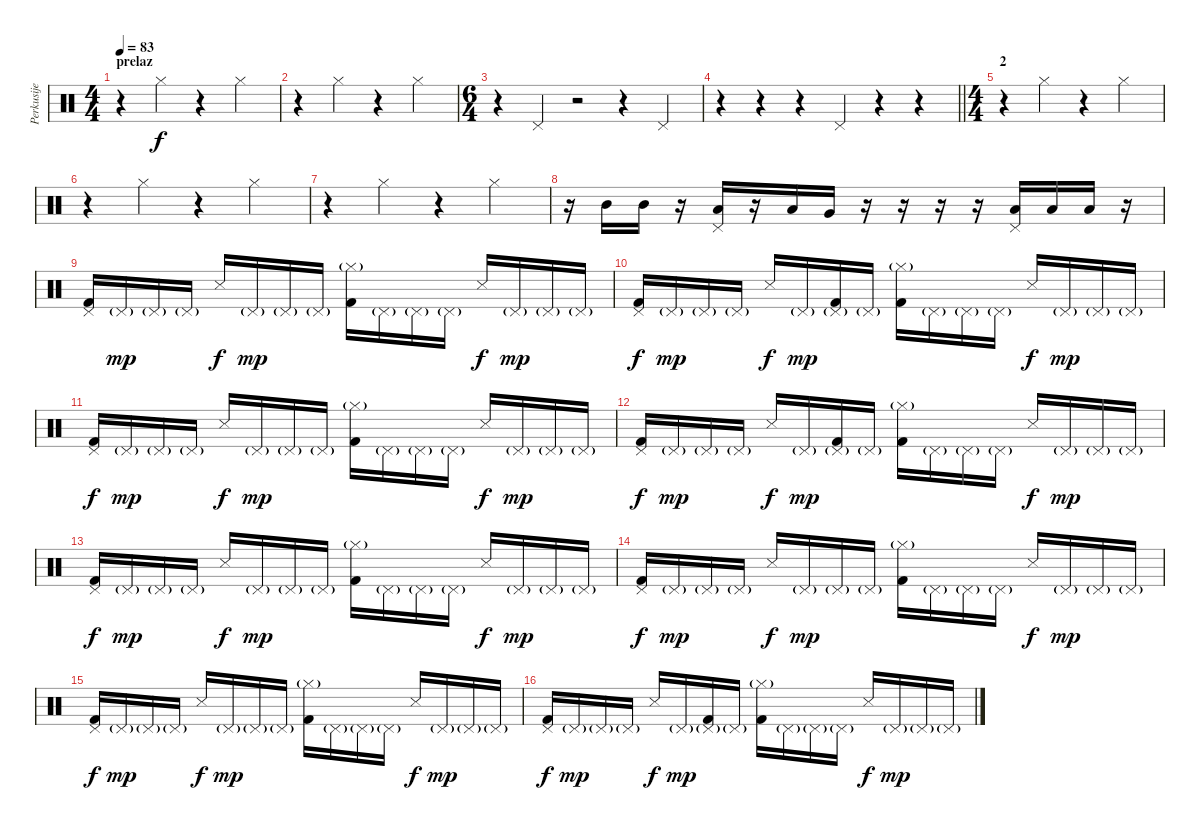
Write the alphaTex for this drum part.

\track ("Perkusije" "Perkusije") {instrument percussion}
\staff {score}
\articulation defaults
\ts (4 4)
\section ("" "prelaz")
\tempo 83
\clef neutral
\ks c
r.4{dy f} "Hi-Hat (closed)".4 r.4 "Hi-Hat (closed)".4 |
r.4 "Hi-Hat (closed)".4 r.4 "Hi-Hat (closed)".4 |
\ts (6 4)
r.4 "Pedal Hi-Hat (hit)".4 r.2 r.4 "Pedal Hi-Hat (hit)".4 |
\barLineRight lightlight
r.4 r.4 r.4 "Pedal Hi-Hat (hit)".4 r.4 r.4 |
\ts (4 4)
\section ("" "2")
r.4 "Hi-Hat (closed)".4 r.4 "Hi-Hat (closed)".4 |
r.4 "Hi-Hat (closed)".4 r.4 "Hi-Hat (closed)".4 |
r.4 "Hi-Hat (closed)".4 r.4 "Hi-Hat (closed)".4 |
r.16 "Mid Tom (hit)".16 "Mid Tom (hit)".16 r.16 ("Pedal Hi-Hat (hit)" "Low Tom (hit)").16 r.16 "Low Tom (hit)".16 "Very Low Tom (hit)".16 r.16 r.16 r.16 r.16 ("Pedal Hi-Hat (hit)" "Low Floor Tom (hit)").16 "Low Floor Tom (hit)".16 "Low Floor Tom (hit)".16 r.16 |
("Pedal Hi-Hat (hit)" "Kick (hit) 2").16 "Pedal Hi-Hat (hit)"{g}.16{dy mp} "Pedal Hi-Hat (hit)"{g}.16 "Pedal Hi-Hat (hit)"{g}.16 "Snare (side stick) 3".16{dy f} "Pedal Hi-Hat (hit)"{g}.16{dy mp} "Pedal Hi-Hat (hit)"{g}.16 "Pedal Hi-Hat (hit)"{g}.16 ("Hi-Hat (closed)"{g} "Kick (hit) 2").16 "Pedal Hi-Hat (hit)"{g}.16 "Pedal Hi-Hat (hit)"{g}.16 "Pedal Hi-Hat (hit)"{g}.16 "Snare (side stick) 3".16{dy f} "Pedal Hi-Hat (hit)"{g}.16{dy mp} "Pedal Hi-Hat (hit)"{g}.16 "Pedal Hi-Hat (hit)"{g}.16 |
("Pedal Hi-Hat (hit)" "Kick (hit) 2").16{dy f} "Pedal Hi-Hat (hit)"{g}.16{dy mp} "Pedal Hi-Hat (hit)"{g}.16 "Pedal Hi-Hat (hit)"{g}.16 "Snare (side stick) 3".16{dy f} "Pedal Hi-Hat (hit)"{g}.16{dy mp} ("Pedal Hi-Hat (hit)"{g} "Kick (hit) 2").16 "Pedal Hi-Hat (hit)"{g}.16 ("Hi-Hat (closed)"{g} "Kick (hit) 2").16 "Pedal Hi-Hat (hit)"{g}.16 "Pedal Hi-Hat (hit)"{g}.16 "Pedal Hi-Hat (hit)"{g}.16 "Snare (side stick) 3".16{dy f} "Pedal Hi-Hat (hit)"{g}.16{dy mp} "Pedal Hi-Hat (hit)"{g}.16 "Pedal Hi-Hat (hit)"{g}.16 |
("Pedal Hi-Hat (hit)" "Kick (hit) 2").16{dy f} "Pedal Hi-Hat (hit)"{g}.16{dy mp} "Pedal Hi-Hat (hit)"{g}.16 "Pedal Hi-Hat (hit)"{g}.16 "Snare (side stick) 3".16{dy f} "Pedal Hi-Hat (hit)"{g}.16{dy mp} "Pedal Hi-Hat (hit)"{g}.16 "Pedal Hi-Hat (hit)"{g}.16 ("Hi-Hat (closed)"{g} "Kick (hit) 2").16 "Pedal Hi-Hat (hit)"{g}.16 "Pedal Hi-Hat (hit)"{g}.16 "Pedal Hi-Hat (hit)"{g}.16 "Snare (side stick) 3".16{dy f} "Pedal Hi-Hat (hit)"{g}.16{dy mp} "Pedal Hi-Hat (hit)"{g}.16 "Pedal Hi-Hat (hit)"{g}.16 |
("Pedal Hi-Hat (hit)" "Kick (hit) 2").16{dy f} "Pedal Hi-Hat (hit)"{g}.16{dy mp} "Pedal Hi-Hat (hit)"{g}.16 "Pedal Hi-Hat (hit)"{g}.16 "Snare (side stick) 3".16{dy f} "Pedal Hi-Hat (hit)"{g}.16{dy mp} ("Pedal Hi-Hat (hit)"{g} "Kick (hit) 2").16 "Pedal Hi-Hat (hit)"{g}.16 ("Hi-Hat (closed)"{g} "Kick (hit) 2").16 "Pedal Hi-Hat (hit)"{g}.16 "Pedal Hi-Hat (hit)"{g}.16 "Pedal Hi-Hat (hit)"{g}.16 "Snare (side stick) 3".16{dy f} "Pedal Hi-Hat (hit)"{g}.16{dy mp} "Pedal Hi-Hat (hit)"{g}.16 "Pedal Hi-Hat (hit)"{g}.16 |
("Pedal Hi-Hat (hit)" "Kick (hit) 2").16{dy f} "Pedal Hi-Hat (hit)"{g}.16{dy mp} "Pedal Hi-Hat (hit)"{g}.16 "Pedal Hi-Hat (hit)"{g}.16 "Snare (side stick) 3".16{dy f} "Pedal Hi-Hat (hit)"{g}.16{dy mp} "Pedal Hi-Hat (hit)"{g}.16 "Pedal Hi-Hat (hit)"{g}.16 ("Hi-Hat (closed)"{g} "Kick (hit) 2").16 "Pedal Hi-Hat (hit)"{g}.16 "Pedal Hi-Hat (hit)"{g}.16 "Pedal Hi-Hat (hit)"{g}.16 "Snare (side stick) 3".16{dy f} "Pedal Hi-Hat (hit)"{g}.16{dy mp} "Pedal Hi-Hat (hit)"{g}.16 "Pedal Hi-Hat (hit)"{g}.16 |
("Pedal Hi-Hat (hit)" "Kick (hit) 2").16{dy f} "Pedal Hi-Hat (hit)"{g}.16{dy mp} "Pedal Hi-Hat (hit)"{g}.16 "Pedal Hi-Hat (hit)"{g}.16 "Snare (side stick) 3".16{dy f} "Pedal Hi-Hat (hit)"{g}.16{dy mp} "Pedal Hi-Hat (hit)"{g}.16 "Pedal Hi-Hat (hit)"{g}.16 ("Hi-Hat (closed)"{g} "Kick (hit) 2").16 "Pedal Hi-Hat (hit)"{g}.16 "Pedal Hi-Hat (hit)"{g}.16 "Pedal Hi-Hat (hit)"{g}.16 "Snare (side stick) 3".16{dy f} "Pedal Hi-Hat (hit)"{g}.16{dy mp} "Pedal Hi-Hat (hit)"{g}.16 "Pedal Hi-Hat (hit)"{g}.16 |
("Pedal Hi-Hat (hit)" "Kick (hit) 2").16{dy f} "Pedal Hi-Hat (hit)"{g}.16{dy mp} "Pedal Hi-Hat (hit)"{g}.16 "Pedal Hi-Hat (hit)"{g}.16 "Snare (side stick) 3".16{dy f} "Pedal Hi-Hat (hit)"{g}.16{dy mp} "Pedal Hi-Hat (hit)"{g}.16 "Pedal Hi-Hat (hit)"{g}.16 ("Hi-Hat (closed)"{g} "Kick (hit) 2").16 "Pedal Hi-Hat (hit)"{g}.16 "Pedal Hi-Hat (hit)"{g}.16 "Pedal Hi-Hat (hit)"{g}.16 "Snare (side stick) 3".16{dy f} "Pedal Hi-Hat (hit)"{g}.16{dy mp} "Pedal Hi-Hat (hit)"{g}.16 "Pedal Hi-Hat (hit)"{g}.16 |
("Pedal Hi-Hat (hit)" "Kick (hit) 2").16{dy f} "Pedal Hi-Hat (hit)"{g}.16{dy mp} "Pedal Hi-Hat (hit)"{g}.16 "Pedal Hi-Hat (hit)"{g}.16 "Snare (side stick) 3".16{dy f} "Pedal Hi-Hat (hit)"{g}.16{dy mp} ("Pedal Hi-Hat (hit)"{g} "Kick (hit) 2").16 "Pedal Hi-Hat (hit)"{g}.16 ("Hi-Hat (closed)"{g} "Kick (hit) 2").16 "Pedal Hi-Hat (hit)"{g}.16 "Pedal Hi-Hat (hit)"{g}.16 "Pedal Hi-Hat (hit)"{g}.16 "Snare (side stick) 3".16{dy f} "Pedal Hi-Hat (hit)"{g}.16{dy mp} "Pedal Hi-Hat (hit)"{g}.16 "Pedal Hi-Hat (hit)"{g}.16
